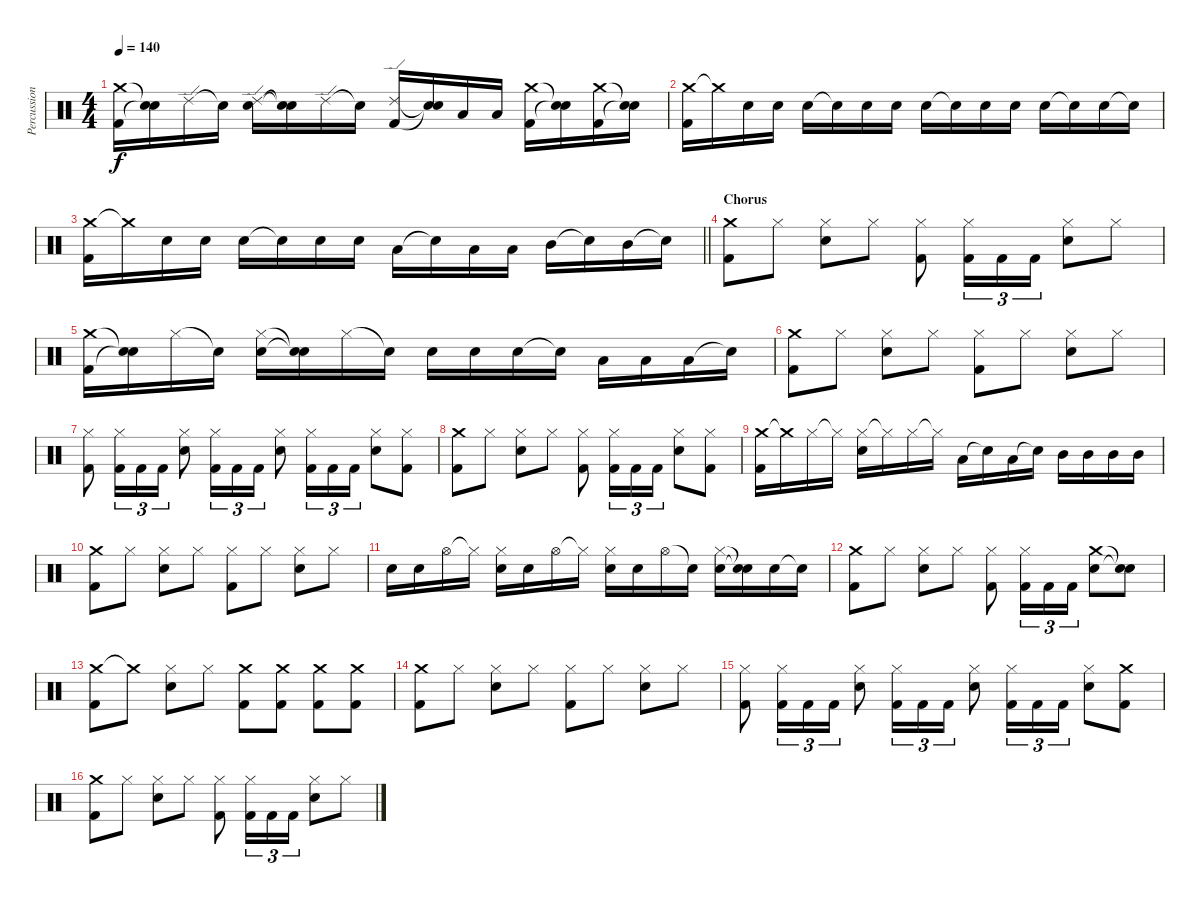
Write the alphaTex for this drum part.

\track ("Percussion" "Percussion") {instrument percussion}
\staff {score}
\articulation defaults
\ts (4 4)
\tempo 140
\clef neutral
\ks c
("Crash medium (hit)" "Kick (hit) 2").16{dy f} ("Snare (hit)"{t} "Snare (hit)"{t}).16 "Ride (edge) 2".16 "Snare (hit)"{t}.16 ("Ride (edge) 2" "Snare (hit) 2").16 ("Snare (hit)"{t} "Snare (hit)"{t}).16 "Ride (edge) 2".16 "Snare (hit)"{t}.16 ("Ride (edge) 2" "Kick (hit) 2").16 ("Snare (hit)"{t} "Snare (hit)"{t}).16 "Low Tom (hit)".16 "Low Tom (hit)".16 ("Crash medium (hit)" "Kick (hit) 2").16 ("Snare (hit)"{t} "Snare (hit)"{t}).16 ("Crash medium (hit)" "Kick (hit) 2").16 ("Snare (hit)"{t} "Snare (hit)"{t}).16 |
("Crash medium (hit)" "Kick (hit) 2").16 "Crash medium (hit)"{t}.16 "Snare (hit) 2".16 "Snare (hit) 2".16 "Snare (hit) 2".16 "Snare (hit) 2"{t}.16 "Snare (hit) 2".16 "Snare (hit) 2".16 "Snare (hit) 2".16 "Snare (hit) 2"{t}.16 "Snare (hit) 2".16 "Snare (hit) 2".16 "Snare (hit) 2".16 "Snare (hit) 2"{t}.16 "Snare (hit) 2".16 "Snare (hit)"{t}.16 |
\barLineRight lightlight
("Crash medium (hit)" "Kick (hit) 2").16 "Crash medium (hit)"{t}.16 "Snare (hit) 2".16 "Snare (hit) 2".16 "Snare (hit) 2".16 "Snare (hit) 2"{t}.16 "Snare (hit) 2".16 "Snare (hit) 2".16 "Low Tom (hit)".16 "Snare (hit)"{t}.16 "Low Tom (hit)".16 "Low Tom (hit)".16 "Mid Tom (hit)".16 "Snare (hit)"{t}.16 "Mid Tom (hit)".16 "Snare (hit)"{t}.16 |
\section ("" "Chorus")
("Crash medium (hit)" "Kick (hit) 2").8 "Hi-Hat (closed)".8 ("Hi-Hat (closed)" "Snare (hit) 2").8 "Hi-Hat (closed)".8 ("Hi-Hat (closed)" "Kick (hit) 2").8 ("Hi-Hat (closed)" "Kick (hit) 2").16{tu (3 2)} "Kick (hit) 2".16{tu (3 2)} "Kick (hit) 2".16{tu (3 2)} ("Hi-Hat (closed)" "Snare (hit) 2").8 "Hi-Hat (closed)".8 |
("Crash medium (hit)" "Kick (hit) 2").16 ("Snare (hit)"{t} "Snare (hit)"{t}).16 "Hi-Hat (closed)".16 "Snare (hit)"{t}.16 ("Hi-Hat (closed)" "Snare (hit) 2").16 ("Snare (hit)"{t} "Snare (hit)"{t}).16 "Hi-Hat (closed)".16 "Snare (hit)"{t}.16 "Snare (hit) 2".16 "Snare (hit) 2".16 "Snare (hit) 2".16 "Snare (hit) 2"{t}.16 "Low Tom (hit)".16 "Low Tom (hit)".16 "Low Tom (hit)".16 "Snare (hit)"{t}.16 |
("Crash medium (hit)" "Kick (hit) 2").8 "Hi-Hat (closed)".8 ("Hi-Hat (closed)" "Snare (hit) 2").8 "Hi-Hat (closed)".8 ("Hi-Hat (closed)" "Kick (hit) 2").8 "Hi-Hat (closed)".8 ("Hi-Hat (closed)" "Snare (hit) 2").8 "Hi-Hat (closed)".8 |
("Hi-Hat (closed)" "Kick (hit) 2").8 ("Hi-Hat (closed)" "Kick (hit) 2").16{tu (3 2)} "Kick (hit) 2".16{tu (3 2)} "Kick (hit) 2".16{tu (3 2)} ("Hi-Hat (closed)" "Snare (hit) 2").8 ("Hi-Hat (closed)" "Kick (hit) 2").16{tu (3 2)} "Kick (hit) 2".16{tu (3 2)} "Kick (hit) 2".16{tu (3 2)} ("Hi-Hat (closed)" "Snare (hit) 2").8 ("Hi-Hat (closed)" "Kick (hit) 2").16{tu (3 2)} "Kick (hit) 2".16{tu (3 2)} "Kick (hit) 2".16{tu (3 2)} ("Hi-Hat (closed)" "Snare (hit) 2").8 ("Hi-Hat (closed)" "Kick (hit) 2").8 |
("Crash medium (hit)" "Kick (hit) 2").8 "Hi-Hat (closed)".8 ("Hi-Hat (closed)" "Snare (hit) 2").8 "Hi-Hat (closed)".8 ("Hi-Hat (closed)" "Kick (hit) 2").8 ("Hi-Hat (closed)" "Kick (hit) 2").16{tu (3 2)} "Kick (hit) 2".16{tu (3 2)} "Kick (hit) 2".16{tu (3 2)} ("Hi-Hat (closed)" "Snare (hit) 2").8 ("Hi-Hat (closed)" "Kick (hit) 2").8 |
("Crash medium (hit)" "Kick (hit) 2").16 "Crash medium (hit)"{t}.16 "Hi-Hat (closed)".16 "Hi-Hat (closed)"{t}.16 ("Hi-Hat (closed)" "Snare (hit) 2").16 "Hi-Hat (closed)"{t}.16 "Hi-Hat (closed)".16 "Hi-Hat (closed)"{t}.16 "Low Tom (hit)".16 "Snare (hit)"{t}.16 "Low Tom (hit)".16 "Snare (hit)"{t}.16 "Mid Tom (hit)".16 "Mid Tom (hit)".16 "Mid Tom (hit)".16 "Mid Tom (hit)".16 |
("Crash medium (hit)" "Kick (hit) 2").8 "Hi-Hat (closed)".8 ("Hi-Hat (closed)" "Snare (hit) 2").8 "Hi-Hat (closed)".8 ("Hi-Hat (closed)" "Kick (hit) 2").8 "Hi-Hat (closed)".8 ("Hi-Hat (closed)" "Snare (hit) 2").8 "Hi-Hat (closed)".8 |
"Snare (hit) 2".16 "Snare (hit) 2".16 "Hi-Hat (open)".16 "Hi-Hat (closed)"{t}.16 ("Hi-Hat (closed)" "Snare (hit) 2").16 "Snare (hit) 2".16 "Hi-Hat (open)".16 "Hi-Hat (closed)"{t}.16 ("Hi-Hat (closed)" "Snare (hit) 2").16 "Snare (hit) 2".16 "Hi-Hat (open)".16 "Snare (hit)"{t}.16 ("Hi-Hat (closed)" "Snare (hit) 2").16 ("Snare (hit)"{t} "Snare (hit) 2"{t}).16 "Snare (hit) 2".16 "Snare (hit)"{t}.16 |
("Crash medium (hit)" "Kick (hit) 2").8 "Hi-Hat (closed)".8 ("Hi-Hat (closed)" "Snare (hit) 2").8 "Hi-Hat (closed)".8 ("Hi-Hat (closed)" "Kick (hit) 2").8 ("Hi-Hat (closed)" "Kick (hit) 2").16{tu (3 2)} "Kick (hit) 2".16{tu (3 2)} "Kick (hit) 2".16{tu (3 2)} ("Crash medium (hit)" "Snare (hit) 2").8 ("Snare (hit)"{t} "Snare (hit)"{t}).8 |
("Crash medium (hit)" "Kick (hit) 2").8 "Crash medium (hit)"{t}.8 ("Hi-Hat (closed)" "Snare (hit) 2").8 "Hi-Hat (closed)".8 ("Crash medium (hit)" "Kick (hit) 2").8 ("Crash medium (hit)" "Kick (hit) 2").8 ("Crash medium (hit)" "Kick (hit) 2").8 ("Crash medium (hit)" "Kick (hit) 2").8 |
("Crash medium (hit)" "Kick (hit) 2").8 "Hi-Hat (closed)".8 ("Hi-Hat (closed)" "Snare (hit) 2").8 "Hi-Hat (closed)".8 ("Hi-Hat (closed)" "Kick (hit) 2").8 "Hi-Hat (closed)".8 ("Hi-Hat (closed)" "Snare (hit) 2").8 "Hi-Hat (closed)".8 |
("Hi-Hat (closed)" "Kick (hit) 2").8 ("Hi-Hat (closed)" "Kick (hit) 2").16{tu (3 2)} "Kick (hit) 2".16{tu (3 2)} "Kick (hit) 2".16{tu (3 2)} ("Hi-Hat (closed)" "Snare (hit) 2").8 ("Hi-Hat (closed)" "Kick (hit) 2").16{tu (3 2)} "Kick (hit) 2".16{tu (3 2)} "Kick (hit) 2".16{tu (3 2)} ("Hi-Hat (closed)" "Snare (hit) 2").8 ("Hi-Hat (closed)" "Kick (hit) 2").16{tu (3 2)} "Kick (hit) 2".16{tu (3 2)} "Kick (hit) 2".16{tu (3 2)} ("Hi-Hat (closed)" "Snare (hit) 2").8 ("Crash medium (hit)" "Kick (hit) 2").8 |
("Crash medium (hit)" "Kick (hit) 2").8 "Hi-Hat (closed)".8 ("Hi-Hat (closed)" "Snare (hit) 2").8 "Hi-Hat (closed)".8 ("Hi-Hat (closed)" "Kick (hit) 2").8 ("Hi-Hat (closed)" "Kick (hit) 2").16{tu (3 2)} "Kick (hit) 2".16{tu (3 2)} "Kick (hit) 2".16{tu (3 2)} ("Hi-Hat (closed)" "Snare (hit) 2").8 "Hi-Hat (closed)".8
